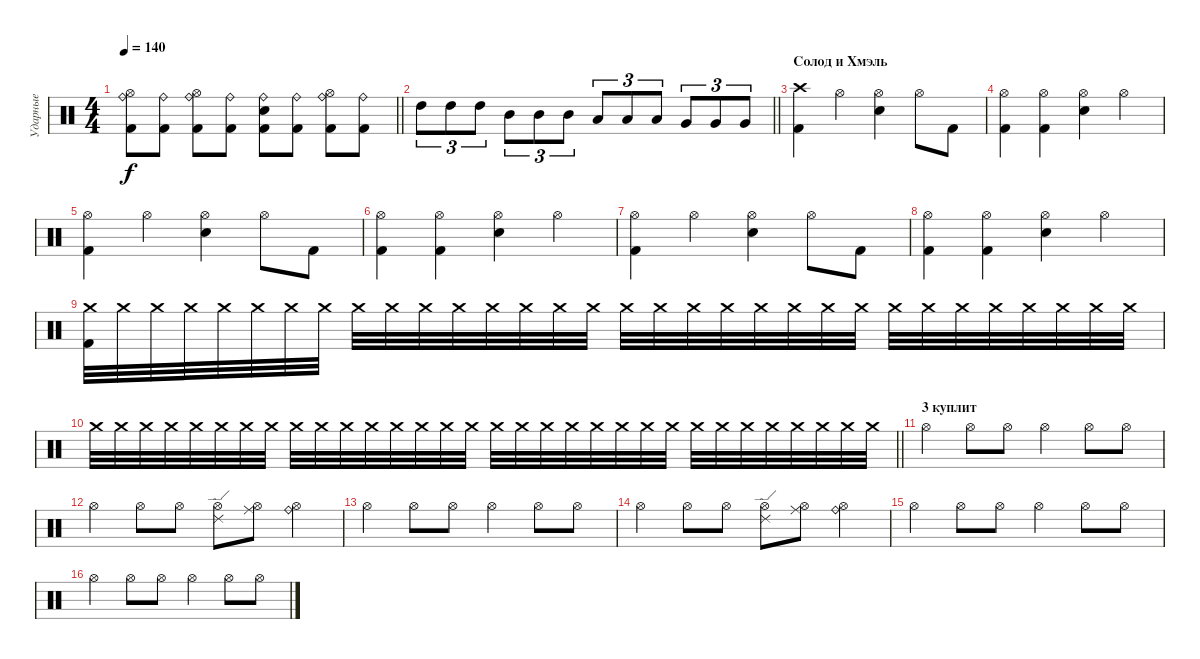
\track ("Ударные" "Ударные") {instrument percussion}
\staff {score}
\articulation defaults
\ts (4 4)
\tempo 140
\clef neutral
\barLineRight lightlight
\ks c
("Kick (hit) 2" "Ride (bell)" "Hi-Hat (open)").8{dy f} ("Kick (hit) 2" "Ride (bell)").8 ("Kick (hit) 2" "Ride (bell)" "Hi-Hat (open)").8 ("Kick (hit) 2" "Ride (bell)").8 ("Kick (hit) 2" "Ride (bell)" "Snare (hit) 2").8 ("Kick (hit) 2" "Ride (bell)").8 ("Kick (hit) 2" "Ride (bell)" "Hi-Hat (open)").8 ("Kick (hit) 2" "Ride (bell)").8 |
\barLineRight lightlight "High Tom (hit)".8{tu (3 2) volume 16} "High Tom (hit)".8{tu (3 2)} "High Tom (hit)".8{tu (3 2)} "Mid Tom (hit)".8{tu (3 2)} "Mid Tom (hit)".8{tu (3 2)} "Mid Tom (hit)".8{tu (3 2)} "Low Tom (hit)".8{tu (3 2)} "Low Tom (hit)".8{tu (3 2)} "Low Tom (hit)".8{tu (3 2)} "Very Low Tom (hit)".8{tu (3 2)} "Very Low Tom (hit)".8{tu (3 2)} "Very Low Tom (hit)".8{tu (3 2)}
|
\section ("" "Солод и Хмэль")
("Kick (hit) 2" "Crash high (hit)").4{volume 16} "Hi-Hat (open)".4 ("Snare (hit) 2" "Hi-Hat (open)").4 "Hi-Hat (open)".8 "Kick (hit) 2".8 |
("Kick (hit) 2" "Hi-Hat (open)").4 ("Kick (hit) 2" "Hi-Hat (open)").4 ("Snare (hit) 2" "Hi-Hat (open)").4 "Hi-Hat (open)".4 |
("Kick (hit) 2" "Hi-Hat (open)").4 "Hi-Hat (open)".4 ("Snare (hit) 2" "Hi-Hat (open)").4 "Hi-Hat (open)".8 "Kick (hit) 2".8 |
("Kick (hit) 2" "Hi-Hat (open)").4 ("Kick (hit) 2" "Hi-Hat (open)").4 ("Snare (hit) 2" "Hi-Hat (open)").4 "Hi-Hat (open)".4 |
("Hi-Hat (open)" "Kick (hit) 2").4 "Hi-Hat (open)".4 ("Snare (hit) 2" "Hi-Hat (open)").4 "Hi-Hat (open)".8 "Kick (hit) 2".8 |
("Kick (hit) 2" "Hi-Hat (open)").4 ("Kick (hit) 2" "Hi-Hat (open)").4 ("Snare (hit) 2" "Hi-Hat (open)").4 "Hi-Hat (open)".4 |
("Crash medium (hit)" "Kick (hit) 2").32{volume 1} "Crash medium (hit)".32 "Crash medium (hit)".32 "Crash medium (hit)".32{volume 3} "Crash medium (hit)".32 "Crash medium (hit)".32 "Crash medium (hit)".32{volume 4} "Crash medium (hit)".32 "Crash medium (hit)".32 "Crash medium (hit)".32{volume 5} "Crash medium (hit)".32 "Crash medium (hit)".32 "Crash medium (hit)".32{volume 6} "Crash medium (hit)".32 "Crash medium (hit)".32 "Crash medium (hit)".32{volume 7} "Crash medium (hit)".32 "Crash medium (hit)".32 "Crash medium (hit)".32 "Crash medium (hit)".32{volume 7} "Crash medium (hit)".32 "Crash medium (hit)".32 "Crash medium (hit)".32 "Crash medium (hit)".32{volume 8} "Crash medium (hit)".32 "Crash medium (hit)".32 "Crash medium (hit)".32 "Crash medium (hit)".32{volume 9} "Crash medium (hit)".32 "Crash medium (hit)".32 "Crash medium (hit)".32 "Crash medium (hit)".32{volume 9} |
\barLineRight lightlight "Crash medium (hit)".32 "Crash medium (hit)".32 "Crash medium (hit)".32 "Crash medium (hit)".32{volume 10} "Crash medium (hit)".32 "Crash medium (hit)".32 "Crash medium (hit)".32 "Crash medium (hit)".32{volume 10} "Crash medium (hit)".32 "Crash medium (hit)".32 "Crash medium (hit)".32 "Crash medium (hit)".32{volume 13} "Crash medium (hit)".32 "Crash medium (hit)".32 "Crash medium (hit)".32 "Crash medium (hit)".32 "Crash medium (hit)".32 "Crash medium (hit)".32 "Crash medium (hit)".32{volume 10} "Crash medium (hit)".32 "Crash medium (hit)".32 "Crash medium (hit)".32 "Crash medium (hit)".32{volume 10} "Crash medium (hit)".32 "Crash medium (hit)".32 "Crash medium (hit)".32 "Crash medium (hit)".32{volume 13} "Crash medium (hit)".32 "Crash medium (hit)".32 "Crash medium (hit)".32 "Crash medium (hit)".32{volume 16} "Crash medium (hit)".32{volume 16}
|
\section ("" "3 куплит")
"Hi-Hat (open)".4 "Hi-Hat (open)".8 "Hi-Hat (open)".8 "Hi-Hat (open)".4 "Hi-Hat (open)".8 "Hi-Hat (open)".8 |
"Hi-Hat (open)".4 "Hi-Hat (open)".8 "Hi-Hat (open)".8 ("Hi-Hat (open)" "Ride (edge) 2").8 ("Hi-Hat (open)" "Ride (middle)").8 ("Hi-Hat (open)" "Ride (bell)").4 |
"Hi-Hat (open)".4 "Hi-Hat (open)".8 "Hi-Hat (open)".8 "Hi-Hat (open)".4 "Hi-Hat (open)".8 "Hi-Hat (open)".8 |
"Hi-Hat (open)".4 "Hi-Hat (open)".8 "Hi-Hat (open)".8 ("Hi-Hat (open)" "Ride (edge) 2").8 ("Hi-Hat (open)" "Ride (middle)").8 ("Hi-Hat (open)" "Ride (bell)").4 |
"Hi-Hat (open)".4 "Hi-Hat (open)".8 "Hi-Hat (open)".8 "Hi-Hat (open)".4 "Hi-Hat (open)".8 "Hi-Hat (open)".8 |
"Hi-Hat (open)".4 "Hi-Hat (open)".8 "Hi-Hat (open)".8 "Hi-Hat (open)".4 "Hi-Hat (open)".8 "Hi-Hat (open)".8
